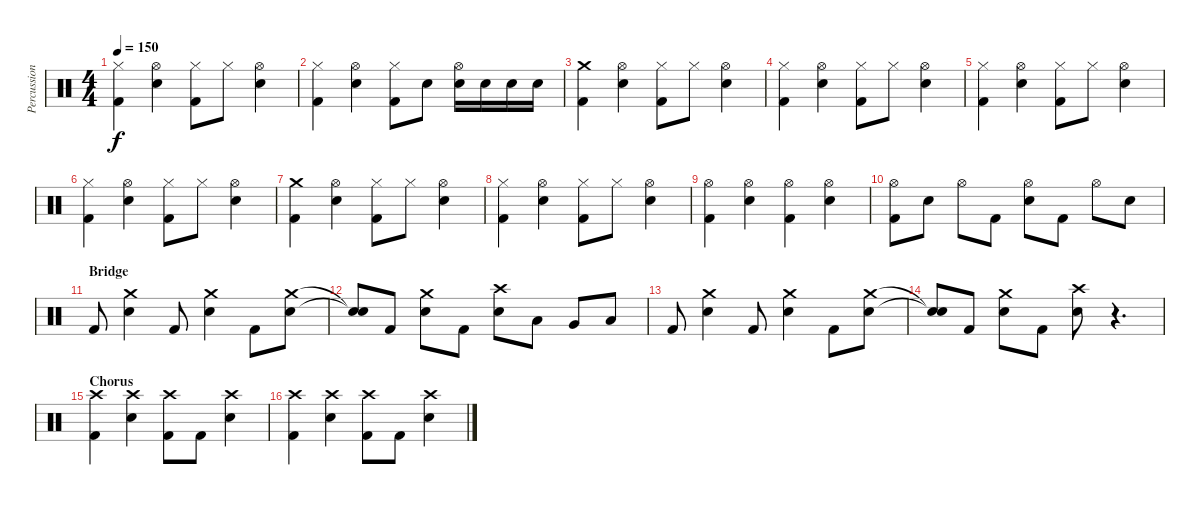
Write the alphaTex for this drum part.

\track ("Percussion" "Percussion") {instrument percussion}
\staff {score}
\articulation defaults
\ts (4 4)
\tempo 150
\clef neutral
\ks c
("Hi-Hat (closed)" "Kick (hit) 2").4{dy f} ("Hi-Hat (open)" "Electric Snare (hit)").4 ("Hi-Hat (closed)" "Kick (hit) 2").8 "Hi-Hat (closed)".8 ("Hi-Hat (open)" "Electric Snare (hit)").4 |
("Hi-Hat (closed)" "Kick (hit) 2").4 ("Hi-Hat (open)" "Electric Snare (hit)").4 ("Hi-Hat (closed)" "Kick (hit) 2").8 "Electric Snare (hit)".8 ("Hi-Hat (open)" "Electric Snare (hit)").16 "Electric Snare (hit)".16 "Electric Snare (hit)".16 "Electric Snare (hit)".16 |
("Crash medium (hit)" "Kick (hit) 2").4 ("Hi-Hat (open)" "Electric Snare (hit)").4 ("Hi-Hat (closed)" "Kick (hit) 2").8 "Hi-Hat (closed)".8 ("Hi-Hat (open)" "Electric Snare (hit)").4 |
("Hi-Hat (closed)" "Kick (hit) 2").4 ("Hi-Hat (open)" "Electric Snare (hit)").4 ("Hi-Hat (closed)" "Kick (hit) 2").8 "Hi-Hat (closed)".8 ("Hi-Hat (open)" "Electric Snare (hit)").4 |
("Hi-Hat (closed)" "Kick (hit) 2").4 ("Hi-Hat (open)" "Electric Snare (hit)").4 ("Hi-Hat (closed)" "Kick (hit) 2").8 "Hi-Hat (closed)".8 ("Hi-Hat (open)" "Electric Snare (hit)").4 |
("Hi-Hat (closed)" "Kick (hit) 2").4 ("Hi-Hat (open)" "Electric Snare (hit)").4 ("Hi-Hat (closed)" "Kick (hit) 2").8 "Hi-Hat (closed)".8 ("Hi-Hat (open)" "Electric Snare (hit)").4 |
("Crash medium (hit)" "Kick (hit) 2").4 ("Hi-Hat (open)" "Electric Snare (hit)").4 ("Hi-Hat (closed)" "Kick (hit) 2").8 "Hi-Hat (closed)".8 ("Hi-Hat (open)" "Electric Snare (hit)").4 |
("Hi-Hat (closed)" "Kick (hit) 2").4 ("Hi-Hat (open)" "Electric Snare (hit)").4 ("Hi-Hat (closed)" "Kick (hit) 2").8 "Hi-Hat (closed)".8 ("Hi-Hat (open)" "Electric Snare (hit)").4 |
("Hi-Hat (open)" "Kick (hit) 2").4 ("Hi-Hat (open)" "Electric Snare (hit)").4 ("Hi-Hat (open)" "Kick (hit) 2").4 ("Hi-Hat (open)" "Electric Snare (hit)").4 |
("Hi-Hat (open)" "Kick (hit) 2").8 "Electric Snare (hit)".8 "Hi-Hat (open)".8 "Kick (hit) 2".8 ("Hi-Hat (open)" "Electric Snare (hit)").8 "Kick (hit) 2".8 "Hi-Hat (open)".8 "Electric Snare (hit)".8 |
\section ("" "Bridge")
"Kick (hit) 2".8 ("Crash medium (hit)" "Electric Snare (hit)").4 "Kick (hit) 2".8 ("Crash medium (hit)" "Electric Snare (hit)").4 "Kick (hit) 2".8 ("Crash medium (hit)" "Electric Snare (hit)").8 |
("Snare (hit)"{t} "Snare (hit)"{t}).8 "Kick (hit) 2".8 ("Crash medium (hit)" "Electric Snare (hit)").8 "Kick (hit) 2".8 ("Crash high (hit)" "Electric Snare (hit)").8 "Low Tom (hit)".8 "Very Low Tom (hit)".8 "Low Floor Tom (hit)".8 |
"Kick (hit) 2".8 ("Crash medium (hit)" "Electric Snare (hit)").4 "Kick (hit) 2".8 ("Crash medium (hit)" "Electric Snare (hit)").4 "Kick (hit) 2".8 ("Crash medium (hit)" "Electric Snare (hit)").8 |
("Snare (hit)"{t} "Snare (hit)"{t}).8 "Kick (hit) 2".8 ("Crash medium (hit)" "Electric Snare (hit)").8 "Kick (hit) 2".8 ("Crash high (hit)" "Electric Snare (hit)").8 r.4{d} |
\section ("" "Chorus")
("Crash high (hit)" "Kick (hit) 2").4 ("Crash high (hit)" "Electric Snare (hit)").4 ("Crash high (hit)" "Kick (hit) 2").8 "Kick (hit) 2".8 ("Crash high (hit)" "Electric Snare (hit)").4 |
("Crash high (hit)" "Kick (hit) 2").4 ("Crash high (hit)" "Electric Snare (hit)").4 ("Crash high (hit)" "Kick (hit) 2").8 "Kick (hit) 2".8 ("Crash high (hit)" "Electric Snare (hit)").4
